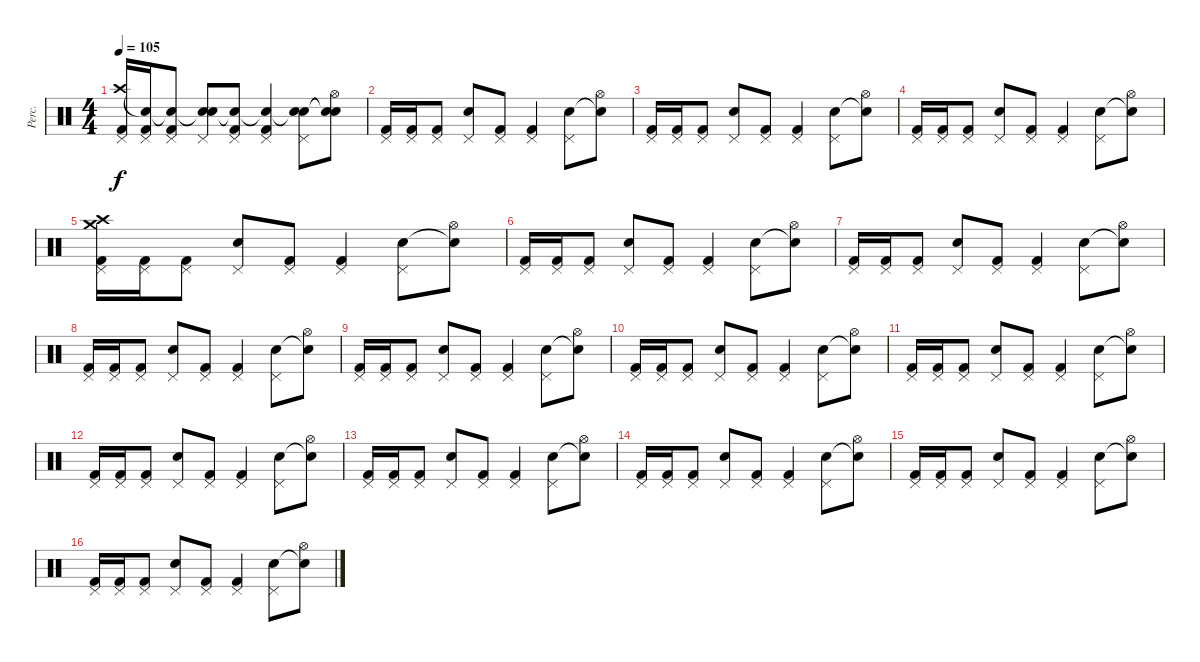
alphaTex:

\track ("Perc." "Perc.") {instrument percussion}
\staff {score}
\articulation defaults
\ts (4 4)
\tempo 105
\clef neutral
\ks c
("Pedal Hi-Hat (hit)" "Crash high (hit)" "Kick (hit) 2").16{dy f} ("Pedal Hi-Hat (hit)" "Snare (hit)"{t} "Kick (hit) 2").16 ("Pedal Hi-Hat (hit)" "Snare (hit)"{t} "Kick (hit) 2").8 ("Pedal Hi-Hat (hit)" "Snare (hit)"{t} "Snare (hit) 2").8 ("Pedal Hi-Hat (hit)" "Snare (hit)"{t} "Kick (hit) 2").8 ("Pedal Hi-Hat (hit)" "Snare (hit)"{t} "Kick (hit) 2").4 ("Pedal Hi-Hat (hit)" "Snare (hit)"{t} "Snare (hit) 2").8 ("Hi-Hat (open)" "Snare (hit)"{t} "Snare (hit)"{t}).8 |
("Pedal Hi-Hat (hit)" "Kick (hit) 2").16 ("Pedal Hi-Hat (hit)" "Kick (hit) 2").16 ("Pedal Hi-Hat (hit)" "Kick (hit) 2").8 ("Pedal Hi-Hat (hit)" "Snare (hit) 2").8 ("Pedal Hi-Hat (hit)" "Kick (hit) 2").8 ("Pedal Hi-Hat (hit)" "Kick (hit) 2").4 ("Pedal Hi-Hat (hit)" "Snare (hit) 2").8 ("Hi-Hat (open)" "Snare (hit)"{t}).8 |
("Pedal Hi-Hat (hit)" "Kick (hit) 2").16 ("Pedal Hi-Hat (hit)" "Kick (hit) 2").16 ("Pedal Hi-Hat (hit)" "Kick (hit) 2").8 ("Pedal Hi-Hat (hit)" "Snare (hit) 2").8 ("Pedal Hi-Hat (hit)" "Kick (hit) 2").8 ("Pedal Hi-Hat (hit)" "Kick (hit) 2").4 ("Pedal Hi-Hat (hit)" "Snare (hit) 2").8 ("Hi-Hat (open)" "Snare (hit)"{t}).8 |
("Pedal Hi-Hat (hit)" "Kick (hit) 2").16 ("Pedal Hi-Hat (hit)" "Kick (hit) 2").16 ("Pedal Hi-Hat (hit)" "Kick (hit) 2").8 ("Pedal Hi-Hat (hit)" "Snare (hit) 2").8 ("Pedal Hi-Hat (hit)" "Kick (hit) 2").8 ("Pedal Hi-Hat (hit)" "Kick (hit) 2").4 ("Pedal Hi-Hat (hit)" "Snare (hit) 2").8 ("Hi-Hat (open)" "Snare (hit)"{t}).8 |
("Pedal Hi-Hat (hit)" "Crash high (hit)" "Crash medium (hit)" "Kick (hit) 2").16 ("Pedal Hi-Hat (hit)" "Kick (hit) 2").16 ("Pedal Hi-Hat (hit)" "Kick (hit) 2").8 ("Pedal Hi-Hat (hit)" "Snare (hit) 2").8 ("Pedal Hi-Hat (hit)" "Kick (hit) 2").8 ("Pedal Hi-Hat (hit)" "Kick (hit) 2").4 ("Pedal Hi-Hat (hit)" "Snare (hit) 2").8 ("Hi-Hat (open)" "Snare (hit)"{t}).8 |
("Pedal Hi-Hat (hit)" "Kick (hit) 2").16 ("Pedal Hi-Hat (hit)" "Kick (hit) 2").16 ("Pedal Hi-Hat (hit)" "Kick (hit) 2").8 ("Pedal Hi-Hat (hit)" "Snare (hit) 2").8 ("Pedal Hi-Hat (hit)" "Kick (hit) 2").8 ("Pedal Hi-Hat (hit)" "Kick (hit) 2").4 ("Pedal Hi-Hat (hit)" "Snare (hit) 2").8 ("Hi-Hat (open)" "Snare (hit)"{t}).8 |
("Pedal Hi-Hat (hit)" "Kick (hit) 2").16 ("Pedal Hi-Hat (hit)" "Kick (hit) 2").16 ("Pedal Hi-Hat (hit)" "Kick (hit) 2").8 ("Pedal Hi-Hat (hit)" "Snare (hit) 2").8 ("Pedal Hi-Hat (hit)" "Kick (hit) 2").8 ("Pedal Hi-Hat (hit)" "Kick (hit) 2").4 ("Pedal Hi-Hat (hit)" "Snare (hit) 2").8 ("Hi-Hat (open)" "Snare (hit)"{t}).8 |
("Pedal Hi-Hat (hit)" "Kick (hit) 2").16 ("Pedal Hi-Hat (hit)" "Kick (hit) 2").16 ("Pedal Hi-Hat (hit)" "Kick (hit) 2").8 ("Pedal Hi-Hat (hit)" "Snare (hit) 2").8 ("Pedal Hi-Hat (hit)" "Kick (hit) 2").8 ("Pedal Hi-Hat (hit)" "Kick (hit) 2").4 ("Pedal Hi-Hat (hit)" "Snare (hit) 2").8 ("Hi-Hat (open)" "Snare (hit)"{t}).8 |
("Pedal Hi-Hat (hit)" "Kick (hit) 2").16 ("Pedal Hi-Hat (hit)" "Kick (hit) 2").16 ("Pedal Hi-Hat (hit)" "Kick (hit) 2").8 ("Pedal Hi-Hat (hit)" "Snare (hit) 2").8 ("Pedal Hi-Hat (hit)" "Kick (hit) 2").8 ("Pedal Hi-Hat (hit)" "Kick (hit) 2").4 ("Pedal Hi-Hat (hit)" "Snare (hit) 2").8 ("Hi-Hat (open)" "Snare (hit)"{t}).8 |
("Pedal Hi-Hat (hit)" "Kick (hit) 2").16 ("Pedal Hi-Hat (hit)" "Kick (hit) 2").16 ("Pedal Hi-Hat (hit)" "Kick (hit) 2").8 ("Pedal Hi-Hat (hit)" "Snare (hit) 2").8 ("Pedal Hi-Hat (hit)" "Kick (hit) 2").8 ("Pedal Hi-Hat (hit)" "Kick (hit) 2").4 ("Pedal Hi-Hat (hit)" "Snare (hit) 2").8 ("Hi-Hat (open)" "Snare (hit)"{t}).8 |
("Pedal Hi-Hat (hit)" "Kick (hit) 2").16 ("Pedal Hi-Hat (hit)" "Kick (hit) 2").16 ("Pedal Hi-Hat (hit)" "Kick (hit) 2").8 ("Pedal Hi-Hat (hit)" "Snare (hit) 2").8 ("Pedal Hi-Hat (hit)" "Kick (hit) 2").8 ("Pedal Hi-Hat (hit)" "Kick (hit) 2").4 ("Pedal Hi-Hat (hit)" "Snare (hit) 2").8 ("Hi-Hat (open)" "Snare (hit)"{t}).8 |
("Pedal Hi-Hat (hit)" "Kick (hit) 2").16 ("Pedal Hi-Hat (hit)" "Kick (hit) 2").16 ("Pedal Hi-Hat (hit)" "Kick (hit) 2").8 ("Pedal Hi-Hat (hit)" "Snare (hit) 2").8 ("Pedal Hi-Hat (hit)" "Kick (hit) 2").8 ("Pedal Hi-Hat (hit)" "Kick (hit) 2").4 ("Pedal Hi-Hat (hit)" "Snare (hit) 2").8 ("Hi-Hat (open)" "Snare (hit)"{t}).8 |
("Pedal Hi-Hat (hit)" "Kick (hit) 2").16 ("Pedal Hi-Hat (hit)" "Kick (hit) 2").16 ("Pedal Hi-Hat (hit)" "Kick (hit) 2").8 ("Pedal Hi-Hat (hit)" "Snare (hit) 2").8 ("Pedal Hi-Hat (hit)" "Kick (hit) 2").8 ("Pedal Hi-Hat (hit)" "Kick (hit) 2").4 ("Pedal Hi-Hat (hit)" "Snare (hit) 2").8 ("Hi-Hat (open)" "Snare (hit)"{t}).8 |
("Pedal Hi-Hat (hit)" "Kick (hit) 2").16 ("Pedal Hi-Hat (hit)" "Kick (hit) 2").16 ("Pedal Hi-Hat (hit)" "Kick (hit) 2").8 ("Pedal Hi-Hat (hit)" "Snare (hit) 2").8 ("Pedal Hi-Hat (hit)" "Kick (hit) 2").8 ("Pedal Hi-Hat (hit)" "Kick (hit) 2").4 ("Pedal Hi-Hat (hit)" "Snare (hit) 2").8 ("Hi-Hat (open)" "Snare (hit)"{t}).8 |
("Pedal Hi-Hat (hit)" "Kick (hit) 2").16 ("Pedal Hi-Hat (hit)" "Kick (hit) 2").16 ("Pedal Hi-Hat (hit)" "Kick (hit) 2").8 ("Pedal Hi-Hat (hit)" "Snare (hit) 2").8 ("Pedal Hi-Hat (hit)" "Kick (hit) 2").8 ("Pedal Hi-Hat (hit)" "Kick (hit) 2").4 ("Pedal Hi-Hat (hit)" "Snare (hit) 2").8 ("Hi-Hat (open)" "Snare (hit)"{t}).8 |
("Pedal Hi-Hat (hit)" "Kick (hit) 2").16 ("Pedal Hi-Hat (hit)" "Kick (hit) 2").16 ("Pedal Hi-Hat (hit)" "Kick (hit) 2").8 ("Pedal Hi-Hat (hit)" "Snare (hit) 2").8 ("Pedal Hi-Hat (hit)" "Kick (hit) 2").8 ("Pedal Hi-Hat (hit)" "Kick (hit) 2").4 ("Pedal Hi-Hat (hit)" "Snare (hit) 2").8 ("Hi-Hat (open)" "Snare (hit)"{t}).8
